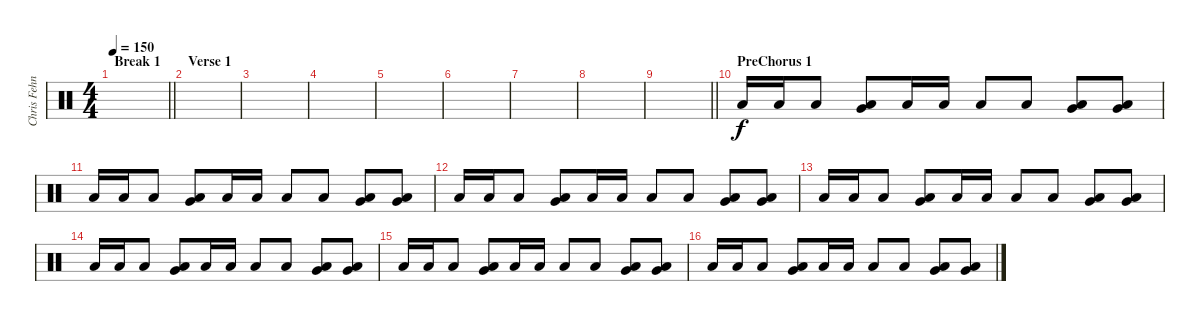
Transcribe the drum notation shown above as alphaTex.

\track ("Chris Fehn" "Chris Fehn") {instrument percussion}
\staff {score}
\articulation defaults
\ts (4 4)
\section ("" "Break 1")
\tempo 150
\clef neutral
\barLineRight lightlight
\ks c
|
\section ("" "Verse 1")
|
|
|
|
|
|
|
\barLineRight lightlight
|
\section ("" "PreChorus 1")
"Low Floor Tom (hit)".16 "Low Floor Tom (hit)".16 "Low Floor Tom (hit)".8 ("Very Low Tom (hit)" "Low Floor Tom (hit)").8 "Low Floor Tom (hit)".16 "Low Floor Tom (hit)".16 "Low Floor Tom (hit)".8 "Low Floor Tom (hit)".8 ("Very Low Tom (hit)" "Low Floor Tom (hit)").8 ("Very Low Tom (hit)" "Low Floor Tom (hit)").8 |
"Low Floor Tom (hit)".16 "Low Floor Tom (hit)".16 "Low Floor Tom (hit)".8 ("Very Low Tom (hit)" "Low Floor Tom (hit)").8 "Low Floor Tom (hit)".16 "Low Floor Tom (hit)".16 "Low Floor Tom (hit)".8 "Low Floor Tom (hit)".8 ("Very Low Tom (hit)" "Low Floor Tom (hit)").8 ("Very Low Tom (hit)" "Low Floor Tom (hit)").8 |
"Low Floor Tom (hit)".16 "Low Floor Tom (hit)".16 "Low Floor Tom (hit)".8 ("Very Low Tom (hit)" "Low Floor Tom (hit)").8 "Low Floor Tom (hit)".16 "Low Floor Tom (hit)".16 "Low Floor Tom (hit)".8 "Low Floor Tom (hit)".8 ("Very Low Tom (hit)" "Low Floor Tom (hit)").8 ("Very Low Tom (hit)" "Low Floor Tom (hit)").8 |
"Low Floor Tom (hit)".16 "Low Floor Tom (hit)".16 "Low Floor Tom (hit)".8 ("Very Low Tom (hit)" "Low Floor Tom (hit)").8 "Low Floor Tom (hit)".16 "Low Floor Tom (hit)".16 "Low Floor Tom (hit)".8 "Low Floor Tom (hit)".8 ("Very Low Tom (hit)" "Low Floor Tom (hit)").8 ("Very Low Tom (hit)" "Low Floor Tom (hit)").8 |
"Low Floor Tom (hit)".16 "Low Floor Tom (hit)".16 "Low Floor Tom (hit)".8 ("Very Low Tom (hit)" "Low Floor Tom (hit)").8 "Low Floor Tom (hit)".16 "Low Floor Tom (hit)".16 "Low Floor Tom (hit)".8 "Low Floor Tom (hit)".8 ("Very Low Tom (hit)" "Low Floor Tom (hit)").8 ("Very Low Tom (hit)" "Low Floor Tom (hit)").8 |
"Low Floor Tom (hit)".16 "Low Floor Tom (hit)".16 "Low Floor Tom (hit)".8 ("Very Low Tom (hit)" "Low Floor Tom (hit)").8 "Low Floor Tom (hit)".16 "Low Floor Tom (hit)".16 "Low Floor Tom (hit)".8 "Low Floor Tom (hit)".8 ("Very Low Tom (hit)" "Low Floor Tom (hit)").8 ("Very Low Tom (hit)" "Low Floor Tom (hit)").8 |
"Low Floor Tom (hit)".16 "Low Floor Tom (hit)".16 "Low Floor Tom (hit)".8 ("Very Low Tom (hit)" "Low Floor Tom (hit)").8 "Low Floor Tom (hit)".16 "Low Floor Tom (hit)".16 "Low Floor Tom (hit)".8 "Low Floor Tom (hit)".8 ("Very Low Tom (hit)" "Low Floor Tom (hit)").8 ("Very Low Tom (hit)" "Low Floor Tom (hit)").8
